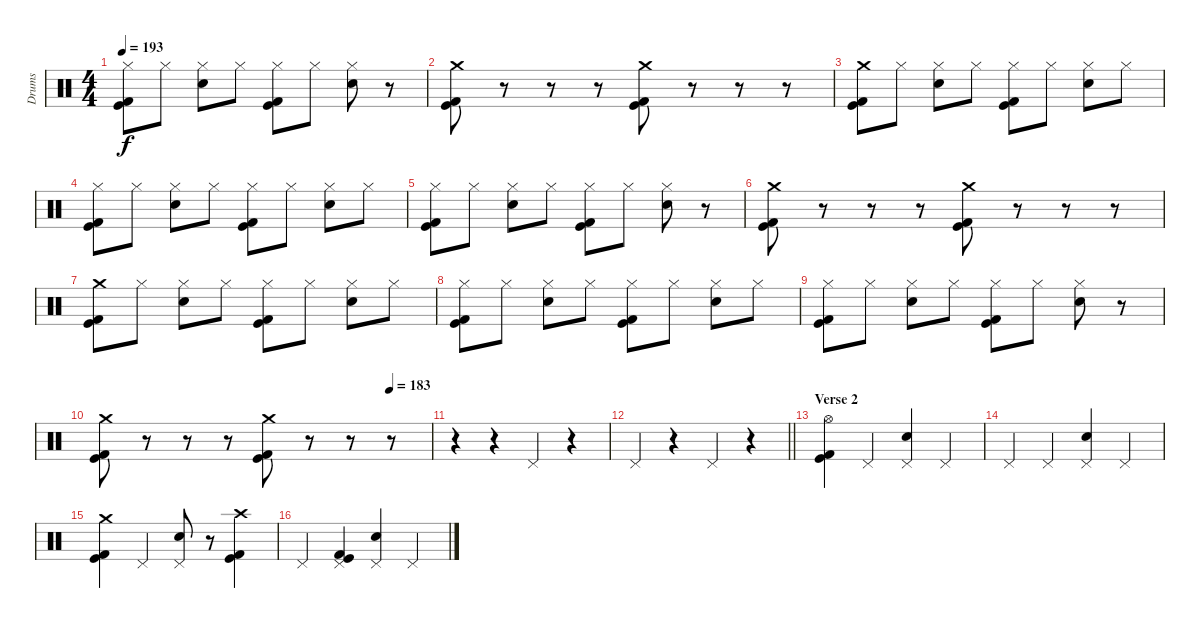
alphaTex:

\track ("Drums" "Drums") {instrument percussion}
\staff
\articulation defaults
\ts (4 4)
\tempo 193
\clef neutral
\ks c
("Hi-Hat (closed)" "Kick (hit)" "Kick (hit) 2").8{dy f} "Hi-Hat (closed)".8 ("Hi-Hat (closed)" "Snare (hit) 2").8 "Hi-Hat (closed)".8 ("Hi-Hat (closed)" "Kick (hit)" "Kick (hit) 2").8 "Hi-Hat (closed)".8 ("Hi-Hat (closed)" "Snare (hit) 2").8 r.8 |
("Crash medium (hit)" "Kick (hit)" "Kick (hit) 2").8 r.8 r.8 r.8 ("Crash medium (hit)" "Kick (hit)" "Kick (hit) 2").8 r.8 r.8 r.8 |
("Crash medium (hit)" "Kick (hit)" "Kick (hit) 2").8 "Hi-Hat (closed)".8 ("Hi-Hat (closed)" "Snare (hit) 2").8 "Hi-Hat (closed)".8 ("Hi-Hat (closed)" "Kick (hit)" "Kick (hit) 2").8 "Hi-Hat (closed)".8 ("Hi-Hat (closed)" "Snare (hit) 2").8 "Hi-Hat (closed)".8 |
("Hi-Hat (closed)" "Kick (hit)" "Kick (hit) 2").8 "Hi-Hat (closed)".8 ("Hi-Hat (closed)" "Snare (hit) 2").8 "Hi-Hat (closed)".8 ("Hi-Hat (closed)" "Kick (hit)" "Kick (hit) 2").8 "Hi-Hat (closed)".8 ("Hi-Hat (closed)" "Snare (hit) 2").8 "Hi-Hat (closed)".8 |
("Hi-Hat (closed)" "Kick (hit)" "Kick (hit) 2").8 "Hi-Hat (closed)".8 ("Hi-Hat (closed)" "Snare (hit) 2").8 "Hi-Hat (closed)".8 ("Hi-Hat (closed)" "Kick (hit)" "Kick (hit) 2").8 "Hi-Hat (closed)".8 ("Hi-Hat (closed)" "Snare (hit) 2").8 r.8 |
("Crash medium (hit)" "Kick (hit)" "Kick (hit) 2").8 r.8 r.8 r.8 ("Crash medium (hit)" "Kick (hit)" "Kick (hit) 2").8 r.8 r.8 r.8 |
("Crash medium (hit)" "Kick (hit)" "Kick (hit) 2").8 "Hi-Hat (closed)".8 ("Hi-Hat (closed)" "Snare (hit) 2").8 "Hi-Hat (closed)".8 ("Hi-Hat (closed)" "Kick (hit)" "Kick (hit) 2").8 "Hi-Hat (closed)".8 ("Hi-Hat (closed)" "Snare (hit) 2").8 "Hi-Hat (closed)".8 |
("Hi-Hat (closed)" "Kick (hit)" "Kick (hit) 2").8 "Hi-Hat (closed)".8 ("Hi-Hat (closed)" "Snare (hit) 2").8 "Hi-Hat (closed)".8 ("Hi-Hat (closed)" "Kick (hit)" "Kick (hit) 2").8 "Hi-Hat (closed)".8 ("Hi-Hat (closed)" "Snare (hit) 2").8 "Hi-Hat (closed)".8 |
("Hi-Hat (closed)" "Kick (hit)" "Kick (hit) 2").8 "Hi-Hat (closed)".8 ("Hi-Hat (closed)" "Snare (hit) 2").8 "Hi-Hat (closed)".8 ("Hi-Hat (closed)" "Kick (hit)" "Kick (hit) 2").8 "Hi-Hat (closed)".8 ("Hi-Hat (closed)" "Snare (hit) 2").8 r.8 |
\tempo (183 0.875)
("Crash medium (hit)" "Kick (hit)" "Kick (hit) 2").8 r.8 r.8 r.8 ("Crash medium (hit)" "Kick (hit)" "Kick (hit) 2").8 r.8 r.8 r.8 |
r.4 r.4 "Pedal Hi-Hat (hit)".4 r.4 |
\barLineRight lightlight "Pedal Hi-Hat (hit)".4
r.4 "Pedal Hi-Hat (hit)".4 r.4 |
\section ("" "Verse 2")
("Hi-Hat (open)" "Kick (hit)" "Kick (hit) 2").4 "Pedal Hi-Hat (hit)".4 ("Pedal Hi-Hat (hit)" "Snare (hit) 2").4 "Pedal Hi-Hat (hit)".4 |
"Pedal Hi-Hat (hit)".4 "Pedal Hi-Hat (hit)".4 ("Pedal Hi-Hat (hit)" "Snare (hit) 2").4 "Pedal Hi-Hat (hit)".4 |
("Crash medium (hit)" "Kick (hit)" "Kick (hit) 2").4 "Pedal Hi-Hat (hit)".4 ("Pedal Hi-Hat (hit)" "Snare (hit) 2").8 r.8 ("Crash high (hit)" "Kick (hit)" "Kick (hit) 2").4 |
"Pedal Hi-Hat (hit)".4 ("Pedal Hi-Hat (hit)" "Kick (hit)" "Kick (hit) 2").4 ("Pedal Hi-Hat (hit)" "Snare (hit) 2").4 "Pedal Hi-Hat (hit)".4
